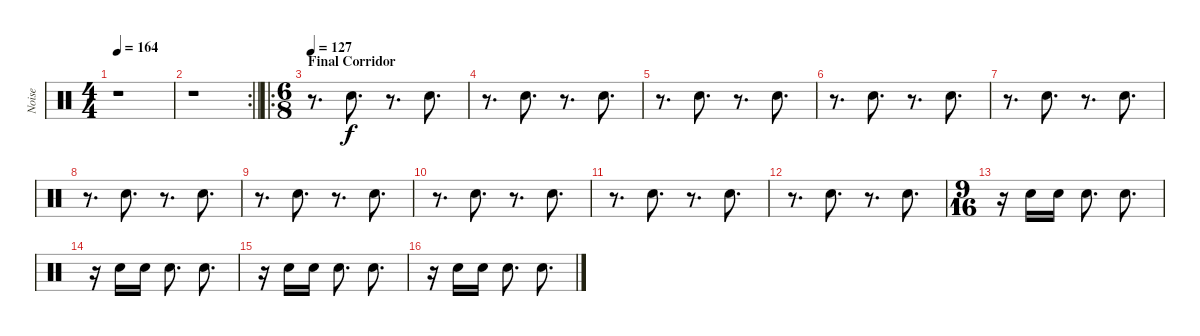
\track ("Noise" "Noise") {instrument percussion}
\staff {score}
\articulation defaults
\ts (4 4)
\tempo 164
\clef neutral
\ks c
r.1{dy f} |
\rc 2
\barLineRight lightlight
r.1 |
\ro
\ts (6 8)
\section ("" "Final Corridor")
\tempo 127
r.8{d volume 13} "Snare (hit) 2".8{d} r.8{d} "Snare (hit) 2".8{d} |
r.8{d} "Snare (hit) 2".8{d} r.8{d} "Snare (hit) 2".8{d} |
r.8{d} "Snare (hit) 2".8{d} r.8{d} "Snare (hit) 2".8{d} |
r.8{d} "Snare (hit) 2".8{d} r.8{d} "Snare (hit) 2".8{d} |
r.8{d} "Snare (hit) 2".8{d} r.8{d} "Snare (hit) 2".8{d} |
r.8{d} "Snare (hit) 2".8{d} r.8{d} "Snare (hit) 2".8{d} |
r.8{d} "Snare (hit) 2".8{d} r.8{d} "Snare (hit) 2".8{d} |
r.8{d} "Snare (hit) 2".8{d} r.8{d} "Snare (hit) 2".8{d} |
r.8{d} "Snare (hit) 2".8{d} r.8{d} "Snare (hit) 2".8{d} |
r.8{d} "Snare (hit) 2".8{d} r.8{d} "Snare (hit) 2".8{d} |
\ts (9 16)
r.16 "Snare (hit) 2".16 "Snare (hit) 2".16 "Snare (hit) 2".8{d} "Snare (hit) 2".8{d} |
r.16 "Snare (hit) 2".16 "Snare (hit) 2".16 "Snare (hit) 2".8{d} "Snare (hit) 2".8{d} |
r.16 "Snare (hit) 2".16 "Snare (hit) 2".16 "Snare (hit) 2".8{d} "Snare (hit) 2".8{d} |
r.16 "Snare (hit) 2".16 "Snare (hit) 2".16 "Snare (hit) 2".8{d} "Snare (hit) 2".8{d}
